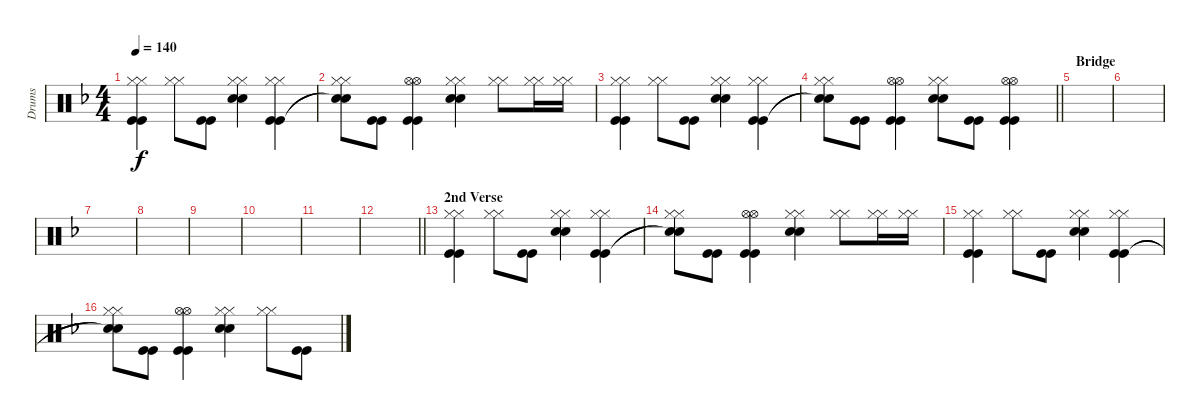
\track ("Drums" "Drums") {instrument percussion}
\staff {score}
\articulation defaults
\ts (4 4)
\tempo 140
\clef neutral
\ks f
("Hi-Hat (closed)" "Hi-Hat (closed)" "Kick (hit)" "Kick (hit)").4{dy f} ("Hi-Hat (closed)" "Hi-Hat (closed)").8 ("Kick (hit)" "Kick (hit)").8 ("Hi-Hat (closed)" "Hi-Hat (closed)" "Snare (hit) 2" "Snare (hit) 2").4 ("Hi-Hat (closed)" "Hi-Hat (closed)" "Kick (hit)" "Kick (hit)").4 |
("Hi-Hat (closed)" "Hi-Hat (closed)" "Snare (hit)"{t} "Snare (hit)"{t}).8 ("Kick (hit)" "Kick (hit)").8 ("Hi-Hat (open)" "Hi-Hat (open)" "Kick (hit)" "Kick (hit)").4 ("Hi-Hat (closed)" "Hi-Hat (closed)" "Snare (hit) 2" "Snare (hit) 2").4 ("Hi-Hat (closed)" "Hi-Hat (closed)").8 ("Hi-Hat (closed)" "Hi-Hat (closed)").16 ("Hi-Hat (closed)" "Hi-Hat (closed)").16 |
("Hi-Hat (closed)" "Hi-Hat (closed)" "Kick (hit)" "Kick (hit)").4 ("Hi-Hat (closed)" "Hi-Hat (closed)").8 ("Kick (hit)" "Kick (hit)").8 ("Hi-Hat (closed)" "Hi-Hat (closed)" "Snare (hit) 2" "Snare (hit) 2").4 ("Hi-Hat (closed)" "Hi-Hat (closed)" "Kick (hit)" "Kick (hit)").4 |
\barLineRight lightlight
("Hi-Hat (closed)" "Hi-Hat (closed)" "Snare (hit)"{t} "Snare (hit)"{t}).8 ("Kick (hit)" "Kick (hit)").8 ("Hi-Hat (open)" "Hi-Hat (open)" "Kick (hit)" "Kick (hit)").4 ("Hi-Hat (closed)" "Hi-Hat (closed)" "Snare (hit) 2" "Snare (hit) 2").8 ("Kick (hit)" "Kick (hit)").8 ("Hi-Hat (open)" "Hi-Hat (open)" "Kick (hit)" "Kick (hit)").4 |
\section ("" "Bridge")
|
|
|
|
|
|
|
\barLineRight lightlight
|
\section ("" "2nd Verse")
("Hi-Hat (closed)" "Hi-Hat (closed)" "Kick (hit)" "Kick (hit)").4 ("Hi-Hat (closed)" "Hi-Hat (closed)").8 ("Kick (hit)" "Kick (hit)").8 ("Hi-Hat (closed)" "Hi-Hat (closed)" "Snare (hit) 2" "Snare (hit) 2").4 ("Hi-Hat (closed)" "Hi-Hat (closed)" "Kick (hit)" "Kick (hit)").4 |
("Hi-Hat (closed)" "Hi-Hat (closed)" "Snare (hit)"{t} "Snare (hit)"{t}).8 ("Kick (hit)" "Kick (hit)").8 ("Hi-Hat (open)" "Hi-Hat (open)" "Kick (hit)" "Kick (hit)").4 ("Hi-Hat (closed)" "Hi-Hat (closed)" "Snare (hit) 2" "Snare (hit) 2").4 ("Hi-Hat (closed)" "Hi-Hat (closed)").8 ("Hi-Hat (closed)" "Hi-Hat (closed)").16 ("Hi-Hat (closed)" "Hi-Hat (closed)").16 |
("Hi-Hat (closed)" "Hi-Hat (closed)" "Kick (hit)" "Kick (hit)").4 ("Hi-Hat (closed)" "Hi-Hat (closed)").8 ("Kick (hit)" "Kick (hit)").8 ("Hi-Hat (closed)" "Hi-Hat (closed)" "Snare (hit) 2" "Snare (hit) 2").4 ("Hi-Hat (closed)" "Hi-Hat (closed)" "Kick (hit)" "Kick (hit)").4 |
("Hi-Hat (closed)" "Hi-Hat (closed)" "Snare (hit)"{t} "Snare (hit)"{t}).8 ("Kick (hit)" "Kick (hit)").8 ("Hi-Hat (open)" "Hi-Hat (open)" "Kick (hit)" "Kick (hit)").4 ("Hi-Hat (closed)" "Hi-Hat (closed)" "Snare (hit) 2" "Snare (hit) 2").4 ("Hi-Hat (closed)" "Hi-Hat (closed)").8 ("Kick (hit)" "Kick (hit)").8
